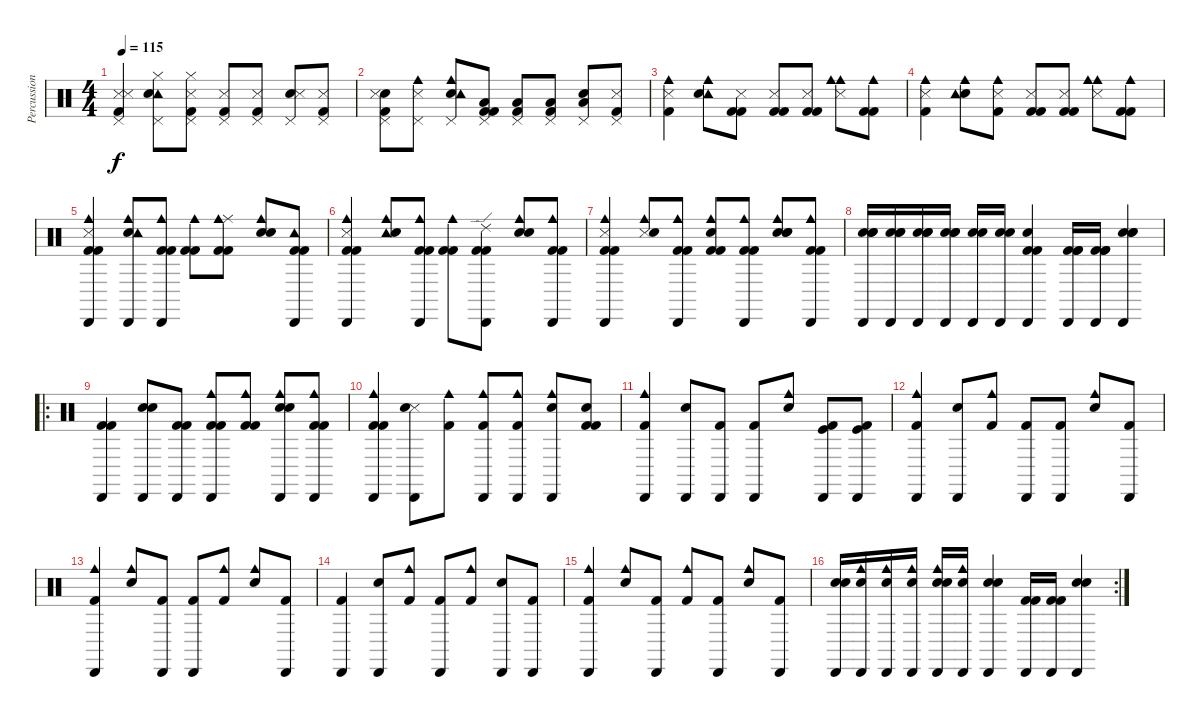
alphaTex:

\track ("Percussion" "Percussion") {instrument percussion}
\staff {score}
\articulation defaults
\ts (4 4)
\tempo 115
\clef neutral
\ks c
("Snare (side stick) 3" "Kick (hit) 2" "Pedal Hi-Hat (hit)" "Snare (side stick) 3").4{dy f} ("Hi-Hat (closed)" "Tambourine (hit)" "Pedal Hi-Hat (hit)" "Snare (hit) 2").8 ("Kick (hit) 2" "Snare (side stick) 3" "Hi-Hat (closed)" "Pedal Hi-Hat (hit)").8 ("Kick (hit) 2" "Pedal Hi-Hat (hit)" "Snare (side stick) 3").8 ("Snare (side stick) 3" "Kick (hit) 2" "Pedal Hi-Hat (hit)").8 ("Snare (hit) 2" "Snare (side stick) 3" "Pedal Hi-Hat (hit)").8 ("Snare (side stick) 3" "Kick (hit) 2" "Pedal Hi-Hat (hit)").8 |
("Snare (hit) 2" "Snare (side stick) 3" "Kick (hit) 2" "Pedal Hi-Hat (hit)").8 ("Snare (side stick) 3" "Cowbell medium (hit)" "Pedal Hi-Hat (hit)").8 ("Cowbell medium (hit)" "Electric Snare (hit)" "Tambourine (hit)" "Pedal Hi-Hat (hit)").8 ("Low Tom (hit)" "Kick (hit) 2" "Kick (hit) 2" "Pedal Hi-Hat (hit)").8 ("Kick (hit) 2" "Pedal Hi-Hat (hit)" "Low Tom (hit)").8 ("Low Tom (hit)" "Pedal Hi-Hat (hit)" "Kick (hit) 2").8 ("Electric Snare (hit)" "Pedal Hi-Hat (hit)" "Low Tom (hit)").8 ("Snare (side stick) 3" "Pedal Hi-Hat (hit)" "Kick (hit) 2").8 |
("Kick (hit) 2" "Cowbell medium (hit)" "Snare (side stick) 3").4 ("Cowbell medium (hit)" "Tambourine (hit)" "Snare (hit) 2").8 ("Kick (hit) 2" "Kick (hit) 2" "Snare (side stick) 3").8 ("Snare (side stick) 3" "Kick (hit) 2" "Kick (hit) 2").8 ("Kick (hit) 2" "Kick (hit) 2" "Snare (side stick) 3").8 ("Cowbell medium (hit)" "Snare (side stick) 3" "Cowbell medium (hit)").8 ("Kick (hit) 2" "Kick (hit) 2" "Cowbell medium (hit)").8 |
("Kick (hit) 2" "Cowbell medium (hit)" "Snare (side stick) 3").4 ("Snare (hit) 2" "Tambourine (hit)" "Cowbell medium (hit)").8 ("Cowbell medium (hit)" "Kick (hit) 2" "Snare (side stick) 3").8 ("Kick (hit) 2" "Kick (hit) 2" "Snare (side stick) 3").8 ("Snare (side stick) 3" "Kick (hit) 2" "Kick (hit) 2").8 ("Cowbell medium (hit)" "Snare (side stick) 3" "Cowbell medium (hit)").8 ("Kick (hit) 2" "Kick (hit) 2" "Cowbell medium (hit)").8 |
("Cabasa (hit)" "Cowbell medium (hit)" "Snare (side stick) 3" "Kick (hit) 2" "Kick (hit) 2").4 ("Cabasa (hit)" "Snare (hit) 2" "Cowbell medium (hit)" "Tambourine (hit)").8 ("Cabasa (hit)" "Cowbell medium (hit)" "Kick (hit) 2" "Kick (hit) 2").8 ("Kick (hit) 2" "Kick (hit) 2" "Cowbell medium (hit)").8 ("Ride (middle)" "Kick (hit) 2" "Kick (hit) 2" "Cowbell medium (hit)").8 ("Snare (hit) 2" "Cowbell medium (hit)" "Snare (hit) 2").8 ("Cabasa (hit)" "Kick (hit) 2" "Kick (hit) 2" "Tambourine (hit)").8 |
("Cabasa (hit)" "Cowbell medium (hit)" "Snare (side stick) 3" "Kick (hit) 2" "Kick (hit) 2").4 ("Tambourine (hit)" "Cowbell medium (hit)" "Snare (hit) 2").8 ("Cabasa (hit)" "Cowbell medium (hit)" "Kick (hit) 2" "Kick (hit) 2").8 ("Cowbell medium (hit)" "Kick (hit) 2" "Kick (hit) 2").8 ("Cabasa (hit)" "Ride (edge) 2" "Kick (hit) 2" "Kick (hit) 2").8 ("Cowbell medium (hit)" "Snare (hit) 2" "Snare (hit) 2").8 ("Cabasa (hit)" "Kick (hit) 2" "Kick (hit) 2" "Cowbell medium (hit)").8 |
("Cabasa (hit)" "Kick (hit) 2" "Kick (hit) 2" "Snare (side stick) 3" "Cowbell medium (hit)").4 ("Cowbell medium (hit)" "Snare (side stick) 3" "Snare (hit) 2").8 ("Cabasa (hit)" "Kick (hit) 2" "Kick (hit) 2" "Cowbell medium (hit)").8 ("Snare (hit)" "Cowbell medium (hit)" "Kick (hit) 2" "Kick (hit) 2").8 ("Cabasa (hit)" "Kick (hit) 2" "Kick (hit) 2" "Cowbell medium (hit)").8 ("Snare (hit)" "Snare (hit) 2" "Snare (hit) 2" "Cowbell medium (hit)").8 ("Cabasa (hit)" "Kick (hit) 2" "Kick (hit) 2" "Cowbell medium (hit)").8 |
("Cabasa (hit)" "Snare (hit) 2" "Snare (hit) 2" "Snare (hit) 2").16 ("Cabasa (hit)" "Snare (hit) 2" "Snare (hit) 2" "Snare (hit) 2").16 ("Snare (hit) 2" "Cabasa (hit)" "Snare (hit) 2" "Snare (hit) 2").16 ("Snare (hit) 2" "Cabasa (hit)" "Snare (hit) 2" "Snare (hit) 2").16 ("Cabasa (hit)" "Snare (hit) 2" "Snare (hit) 2").16 ("Snare (hit) 2" "Snare (hit) 2" "Cabasa (hit)").16 ("Cabasa (hit)" "Snare (hit) 2" "Kick (hit) 2" "Kick (hit) 2").4 ("Cabasa (hit)" "Kick (hit) 2" "Kick (hit) 2" "Kick (hit) 2").16 ("Cabasa (hit)" "Kick (hit) 2" "Kick (hit) 2" "Kick (hit) 2").16 ("Cabasa (hit)" "Snare (hit) 2" "Snare (hit) 2" "Snare (hit) 2").4 |
\ro
("Cabasa (hit)" "Kick (hit) 2" "Kick (hit) 2").4 ("Snare (hit) 2" "Snare (hit) 2" "Cabasa (hit)").8 ("Cabasa (hit)" "Kick (hit) 2" "Kick (hit) 2").8 ("Kick (hit) 2" "Kick (hit) 2" "Cabasa (hit)" "Cowbell medium (hit)").8 ("Kick (hit) 2" "Kick (hit) 2" "Cowbell medium (hit)").8 ("Snare (hit) 2" "Snare (hit) 2" "Cabasa (hit)" "Cowbell medium (hit)").8 ("Cabasa (hit)" "Cowbell medium (hit)" "Kick (hit) 2" "Kick (hit) 2").8 |
("Kick (hit) 2" "Kick (hit) 2" "Cowbell medium (hit)" "Cabasa (hit)").4 ("Cabasa (hit)" "Metronome (hit)" "Snare (hit) 2").8 ("Kick (hit) 2" "Cowbell medium (hit)").8 ("Cowbell medium (hit)" "Cabasa (hit)" "Kick (hit) 2").8 ("Kick (hit) 2" "Cowbell medium (hit)" "Cabasa (hit)").8 ("Cowbell medium (hit)" "Snare (hit) 2" "Cabasa (hit)").8 ("Snare (hit)" "Kick (hit) 2" "Kick (hit) 2").8 |
("Cabasa (hit)" "Kick (hit) 2" "Cowbell medium (hit)").4 ("Cabasa (hit)" "Snare (hit) 2").8 ("Cabasa (hit)" "Kick (hit) 2").8 ("Kick (hit) 2" "Cabasa (hit)").8 ("Snare (hit) 2" "Cowbell medium (hit)").8 ("Kick (hit) 2" "Cabasa (hit)" "Kick (hit)").8 ("Cabasa (hit)" "Kick (hit)" "Kick (hit) 2").8 |
("Kick (hit) 2" "Cabasa (hit)" "Cowbell medium (hit)").4 ("Cabasa (hit)" "Snare (hit) 2").8 ("Kick (hit) 2" "Cowbell medium (hit)").8 ("Cabasa (hit)" "Kick (hit) 2").8 ("Kick (hit) 2" "Cabasa (hit)").8 ("Snare (hit) 2" "Cowbell medium (hit)").8 ("Kick (hit) 2" "Cabasa (hit)").8 |
("Cabasa (hit)" "Kick (hit) 2" "Cowbell medium (hit)").4 ("Cowbell medium (hit)" "Snare (hit) 2").8 ("Kick (hit) 2" "Cabasa (hit)").8 ("Cabasa (hit)" "Kick (hit) 2").8 ("Kick (hit) 2" "Cowbell medium (hit)").8 ("Snare (hit) 2" "Cowbell medium (hit)").8 ("Kick (hit) 2" "Cabasa (hit)").8 |
("Cabasa (hit)" "Kick (hit) 2").4 ("Snare (hit) 2" "Cabasa (hit)").8 ("Cowbell medium (hit)" "Kick (hit) 2").8 ("Cabasa (hit)" "Kick (hit) 2").8 ("Kick (hit) 2" "Cowbell medium (hit)").8 ("Snare (hit) 2" "Cabasa (hit)").8 ("Cabasa (hit)" "Kick (hit) 2").8 |
("Cabasa (hit)" "Kick (hit) 2" "Cowbell medium (hit)").4 ("Cowbell medium (hit)" "Snare (hit) 2").8 ("Cabasa (hit)" "Kick (hit) 2").8 ("Kick (hit) 2" "Cowbell medium (hit)").8 ("Cabasa (hit)" "Kick (hit) 2").8 ("Snare (hit) 2" "Cowbell medium (hit)").8 ("Kick (hit) 2" "Cabasa (hit)").8 |
\rc 2
("Cabasa (hit)" "Snare (hit) 2" "Snare (hit) 2").16 ("Cabasa (hit)" "Snare (hit) 2" "Cowbell medium (hit)").16 ("Cabasa (hit)" "Snare (hit) 2" "Cowbell medium (hit)").16 ("Cabasa (hit)" "Snare (hit) 2" "Cowbell medium (hit)").16 ("Snare (hit) 2" "Snare (hit) 2" "Cowbell medium (hit)" "Cabasa (hit)").16 ("Cowbell medium (hit)" "Cabasa (hit)" "Snare (hit) 2").16 ("Snare (hit) 2" "Snare (hit) 2" "Cabasa (hit)").4 ("Cabasa (hit)" "Kick (hit) 2" "Kick (hit) 2").16 ("Kick (hit) 2" "Kick (hit) 2" "Cabasa (hit)").16 ("Snare (hit) 2" "Snare (hit) 2" "Cabasa (hit)").4
